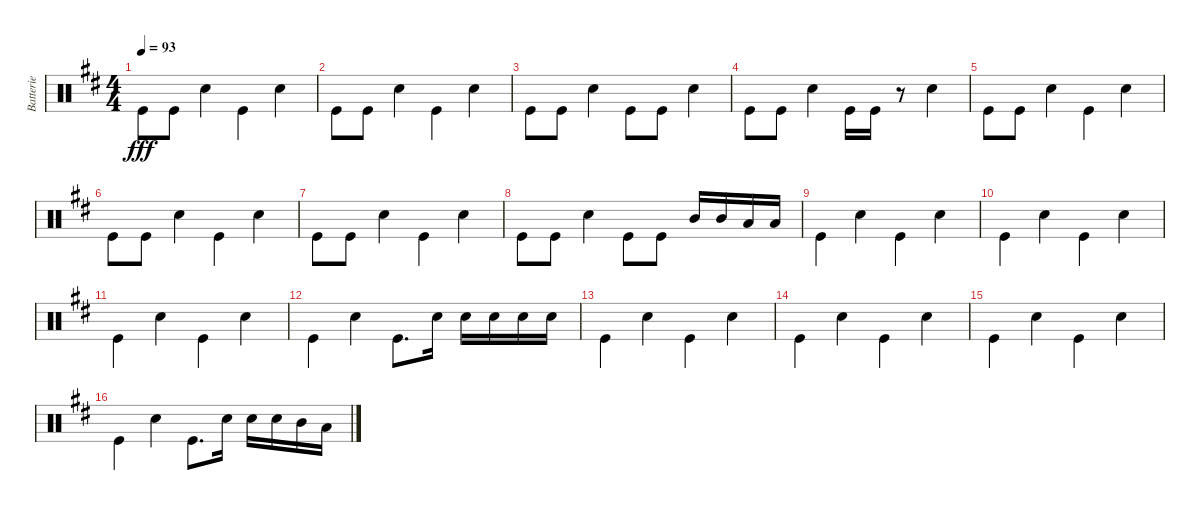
\track ("Batterie" "Batterie") {instrument percussion}
\staff {score}
\articulation defaults
\ts (4 4)
\tempo 93
\clef neutral
\ks d "Kick (hit)".8{dy fff beam Down} "Kick (hit)".8{beam Down} "Snare (hit) 2".4 "Kick (hit)".4{beam Down} "Snare (hit) 2".4
|
"Kick (hit)".8{beam Down} "Kick (hit)".8{beam Down} "Snare (hit) 2".4 "Kick (hit)".4{beam Down} "Snare (hit) 2".4 |
"Kick (hit)".8{beam Down} "Kick (hit)".8{beam Down} "Snare (hit) 2".4 "Kick (hit)".8{beam Down} "Kick (hit)".8{beam Down} "Snare (hit) 2".4 |
"Kick (hit)".8{beam Down} "Kick (hit)".8{beam Down} "Snare (hit) 2".4 "Kick (hit)".16{beam Down} "Kick (hit)".16{beam Down} r.8 "Snare (hit) 2".4 |
"Kick (hit)".8{beam Down} "Kick (hit)".8{beam Down} "Snare (hit) 2".4 "Kick (hit)".4{beam Down} "Snare (hit) 2".4 |
"Kick (hit)".8{beam Down} "Kick (hit)".8{beam Down} "Snare (hit) 2".4 "Kick (hit)".4{beam Down} "Snare (hit) 2".4 |
"Kick (hit)".8{beam Down} "Kick (hit)".8{beam Down} "Snare (hit) 2".4 "Kick (hit)".4{beam Down} "Snare (hit) 2".4 |
"Kick (hit)".8{beam Down} "Kick (hit)".8{beam Down} "Snare (hit) 2".4 "Kick (hit)".8{beam Down} "Kick (hit)".8{beam Down} "Mid Tom (hit)".16 "Mid Tom (hit)".16 "Low Tom (hit)".16 "Low Tom (hit)".16 |
"Kick (hit)".4{beam Down} "Snare (hit) 2".4 "Kick (hit)".4{beam Down} "Snare (hit) 2".4 |
"Kick (hit)".4{beam Down} "Snare (hit) 2".4 "Kick (hit)".4{beam Down} "Snare (hit) 2".4 |
"Kick (hit)".4{beam Down} "Snare (hit) 2".4 "Kick (hit)".4{beam Down} "Snare (hit) 2".4 |
"Kick (hit)".4{beam Down} "Snare (hit) 2".4 "Kick (hit)".8{d beam Down} "Snare (hit) 2".16{beam Down} "Snare (hit) 2".16 "Snare (hit) 2".16 "Snare (hit) 2".16 "Snare (hit) 2".16 |
"Kick (hit)".4{beam Down} "Electric Snare (hit)".4 "Kick (hit)".4{beam Down} "Electric Snare (hit)".4 |
"Kick (hit)".4{beam Down} "Electric Snare (hit)".4 "Kick (hit)".4{beam Down} "Electric Snare (hit)".4 |
"Kick (hit)".4{beam Down} "Electric Snare (hit)".4 "Kick (hit)".4{beam Down} "Electric Snare (hit)".4 |
"Kick (hit)".4{beam Down} "Electric Snare (hit)".4 "Kick (hit)".8{d beam Down} "Snare (hit) 2".16{beam Down} "Snare (hit) 2".16 "Snare (hit) 2".16 "Mid Tom (hit)".16 "Low Tom (hit)".16
